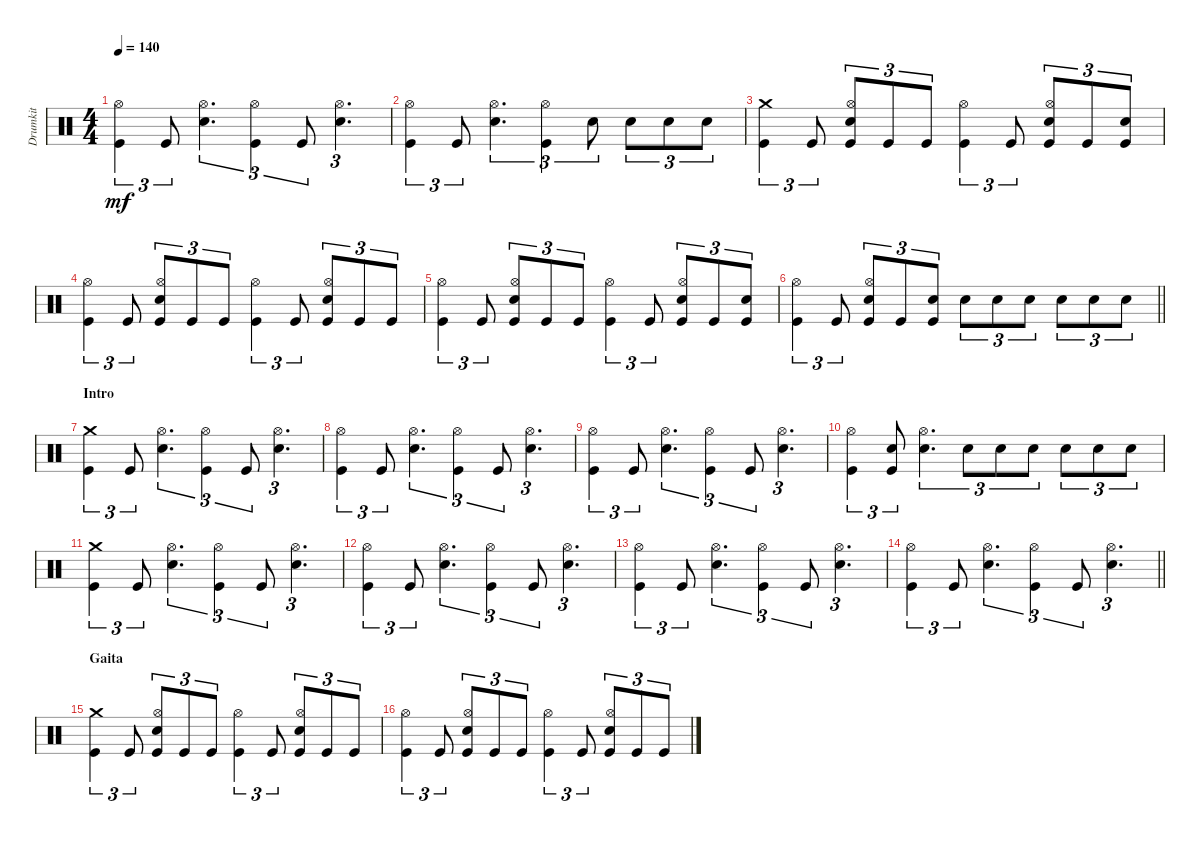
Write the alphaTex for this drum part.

\track ("Drumkit" "Drumkit") {instrument percussion}
\staff {score}
\articulation defaults
\ts (4 4)
\tempo 140
\clef neutral
\ks c
("Kick (hit)" "Hi-Hat (open)").4{tu (3 2) dy mf} "Kick (hit)".8{tu (3 2)} ("Snare (hit) 2" "Hi-Hat (open)").4{d tu (3 2)} ("Kick (hit)" "Hi-Hat (open)").4{tu (3 2)} "Kick (hit)".8{tu (3 2)} ("Snare (hit) 2" "Hi-Hat (open)").4{d tu (3 2)} |
("Kick (hit)" "Hi-Hat (open)").4{tu (3 2)} "Kick (hit)".8{tu (3 2)} ("Snare (hit) 2" "Hi-Hat (open)").4{d tu (3 2)} ("Kick (hit)" "Hi-Hat (open)").4{tu (3 2)} "Snare (hit) 2".8{tu (3 2)} "Snare (hit) 2".8{tu (3 2)} "Snare (hit) 2".8{tu (3 2)} "Snare (hit) 2".8{tu (3 2)} |
("Kick (hit)" "Crash medium (hit)").4{tu (3 2)} "Kick (hit)".8{tu (3 2)} ("Kick (hit)" "Hi-Hat (open)" "Snare (hit) 2").8{tu (3 2)} "Kick (hit)".8{tu (3 2)} "Kick (hit)".8{tu (3 2)} ("Kick (hit)" "Hi-Hat (open)").4{tu (3 2)} "Kick (hit)".8{tu (3 2)} ("Kick (hit)" "Hi-Hat (open)" "Snare (hit) 2").8{tu (3 2)} "Kick (hit)".8{tu (3 2)} ("Kick (hit)" "Snare (hit) 2").8{tu (3 2)} |
("Kick (hit)" "Hi-Hat (open)").4{tu (3 2)} "Kick (hit)".8{tu (3 2)} ("Kick (hit)" "Hi-Hat (open)" "Snare (hit) 2").8{tu (3 2)} "Kick (hit)".8{tu (3 2)} "Kick (hit)".8{tu (3 2)} ("Kick (hit)" "Hi-Hat (open)").4{tu (3 2)} "Kick (hit)".8{tu (3 2)} ("Kick (hit)" "Hi-Hat (open)" "Snare (hit) 2").8{tu (3 2)} "Kick (hit)".8{tu (3 2)} "Kick (hit)".8{tu (3 2)} |
("Kick (hit)" "Hi-Hat (open)").4{tu (3 2)} "Kick (hit)".8{tu (3 2)} ("Kick (hit)" "Hi-Hat (open)" "Snare (hit) 2").8{tu (3 2)} "Kick (hit)".8{tu (3 2)} "Kick (hit)".8{tu (3 2)} ("Kick (hit)" "Hi-Hat (open)").4{tu (3 2)} "Kick (hit)".8{tu (3 2)} ("Kick (hit)" "Hi-Hat (open)" "Snare (hit) 2").8{tu (3 2)} "Kick (hit)".8{tu (3 2)} ("Kick (hit)" "Snare (hit) 2").8{tu (3 2)} |
\barLineRight lightlight
("Kick (hit)" "Hi-Hat (open)").4{tu (3 2)} "Kick (hit)".8{tu (3 2)} ("Kick (hit)" "Hi-Hat (open)" "Snare (hit) 2").8{tu (3 2)} "Kick (hit)".8{tu (3 2)} ("Kick (hit)" "Snare (hit) 2").8{tu (3 2)} "Snare (hit) 2".8{tu (3 2)} "Snare (hit) 2".8{tu (3 2)} "Snare (hit) 2".8{tu (3 2)} "Snare (hit) 2".8{tu (3 2)} "Snare (hit) 2".8{tu (3 2)} "Snare (hit) 2".8{tu (3 2)} |
\section ("" "Intro")
("Crash medium (hit)" "Kick (hit)").4{tu (3 2)} "Kick (hit)".8{tu (3 2)} ("Snare (hit) 2" "Hi-Hat (open)").4{d tu (3 2)} ("Kick (hit)" "Hi-Hat (open)").4{tu (3 2)} "Kick (hit)".8{tu (3 2)} ("Snare (hit) 2" "Hi-Hat (open)").4{d tu (3 2)} |
("Kick (hit)" "Hi-Hat (open)").4{tu (3 2)} "Kick (hit)".8{tu (3 2)} ("Snare (hit) 2" "Hi-Hat (open)").4{d tu (3 2)} ("Kick (hit)" "Hi-Hat (open)").4{tu (3 2)} "Kick (hit)".8{tu (3 2)} ("Snare (hit) 2" "Hi-Hat (open)").4{d tu (3 2)} |
("Kick (hit)" "Hi-Hat (open)").4{tu (3 2)} "Kick (hit)".8{tu (3 2)} ("Snare (hit) 2" "Hi-Hat (open)").4{d tu (3 2)} ("Kick (hit)" "Hi-Hat (open)").4{tu (3 2)} "Kick (hit)".8{tu (3 2)} ("Snare (hit) 2" "Hi-Hat (open)").4{d tu (3 2)} |
("Kick (hit)" "Hi-Hat (open)").4{tu (3 2)} ("Kick (hit)" "Snare (hit) 2").8{tu (3 2)} ("Snare (hit) 2" "Hi-Hat (open)").4{d tu (3 2)} "Snare (hit) 2".8{tu (3 2)} "Snare (hit) 2".8{tu (3 2)} "Snare (hit) 2".8{tu (3 2)} "Snare (hit) 2".8{tu (3 2)} "Snare (hit) 2".8{tu (3 2)} "Snare (hit) 2".8{tu (3 2)} |
("Crash medium (hit)" "Kick (hit)").4{tu (3 2)} "Kick (hit)".8{tu (3 2)} ("Snare (hit) 2" "Hi-Hat (open)").4{d tu (3 2)} ("Kick (hit)" "Hi-Hat (open)").4{tu (3 2)} "Kick (hit)".8{tu (3 2)} ("Snare (hit) 2" "Hi-Hat (open)").4{d tu (3 2)} |
("Kick (hit)" "Hi-Hat (open)").4{tu (3 2)} "Kick (hit)".8{tu (3 2)} ("Snare (hit) 2" "Hi-Hat (open)").4{d tu (3 2)} ("Kick (hit)" "Hi-Hat (open)").4{tu (3 2)} "Kick (hit)".8{tu (3 2)} ("Snare (hit) 2" "Hi-Hat (open)").4{d tu (3 2)} |
("Kick (hit)" "Hi-Hat (open)").4{tu (3 2)} "Kick (hit)".8{tu (3 2)} ("Snare (hit) 2" "Hi-Hat (open)").4{d tu (3 2)} ("Kick (hit)" "Hi-Hat (open)").4{tu (3 2)} "Kick (hit)".8{tu (3 2)} ("Snare (hit) 2" "Hi-Hat (open)").4{d tu (3 2)} |
\barLineRight lightlight
("Kick (hit)" "Hi-Hat (open)").4{tu (3 2)} "Kick (hit)".8{tu (3 2)} ("Snare (hit) 2" "Hi-Hat (open)").4{d tu (3 2)} ("Kick (hit)" "Hi-Hat (open)").4{tu (3 2)} "Kick (hit)".8{tu (3 2)} ("Snare (hit) 2" "Hi-Hat (open)").4{d tu (3 2)} |
\section ("" "Gaita")
("Kick (hit)" "Crash medium (hit)").4{tu (3 2)} "Kick (hit)".8{tu (3 2)} ("Kick (hit)" "Hi-Hat (open)" "Snare (hit) 2").8{tu (3 2)} "Kick (hit)".8{tu (3 2)} "Kick (hit)".8{tu (3 2)} ("Kick (hit)" "Hi-Hat (open)").4{tu (3 2)} "Kick (hit)".8{tu (3 2)} ("Kick (hit)" "Hi-Hat (open)" "Snare (hit) 2").8{tu (3 2)} "Kick (hit)".8{tu (3 2)} "Kick (hit)".8{tu (3 2)} |
("Kick (hit)" "Hi-Hat (open)").4{tu (3 2)} "Kick (hit)".8{tu (3 2)} ("Kick (hit)" "Hi-Hat (open)" "Snare (hit) 2").8{tu (3 2)} "Kick (hit)".8{tu (3 2)} "Kick (hit)".8{tu (3 2)} ("Kick (hit)" "Hi-Hat (open)").4{tu (3 2)} "Kick (hit)".8{tu (3 2)} ("Kick (hit)" "Hi-Hat (open)" "Snare (hit) 2").8{tu (3 2)} "Kick (hit)".8{tu (3 2)} "Kick (hit)".8{tu (3 2)}
